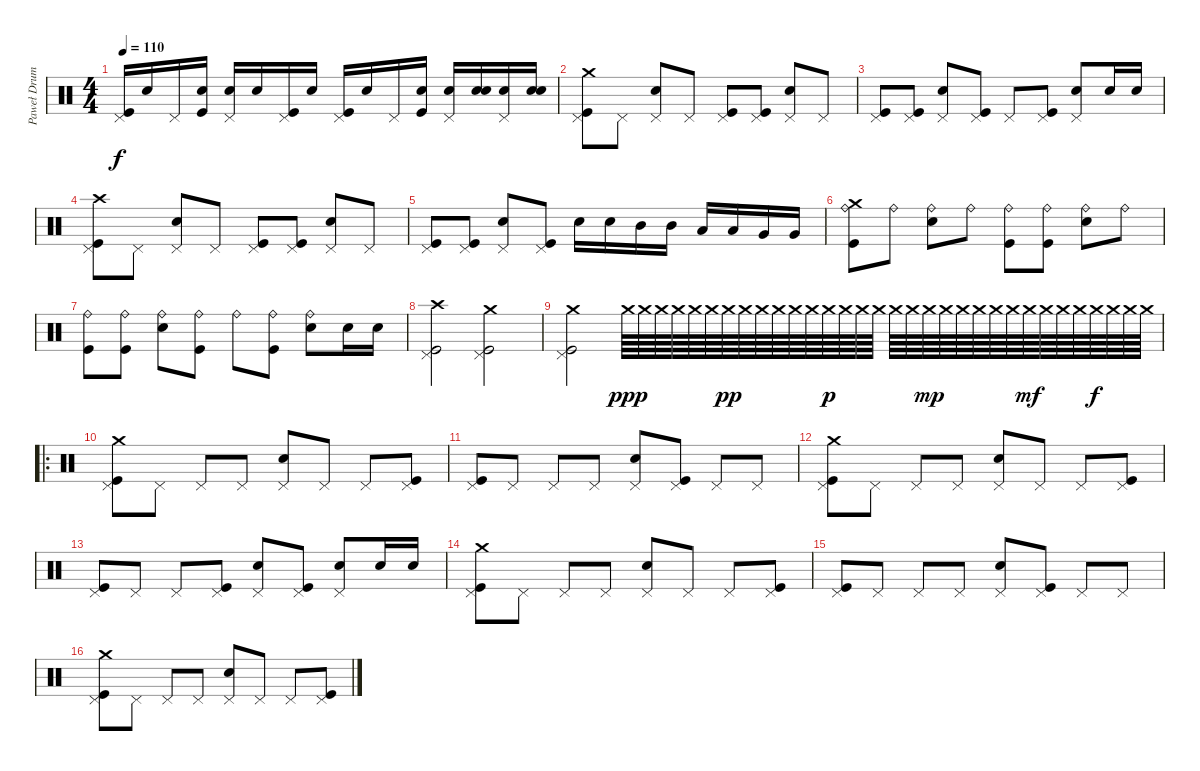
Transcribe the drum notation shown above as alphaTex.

\track ("Paweł Drums" "Paweł Drum") {instrument percussion}
\staff {score}
\articulation defaults
\ts (4 4)
\tempo 110
\clef neutral
\ks c
("Pedal Hi-Hat (hit)" "Kick (hit)").16{dy f} "Snare (hit)".16 "Pedal Hi-Hat (hit)".16 ("Snare (hit)" "Kick (hit)").16 ("Pedal Hi-Hat (hit)" "Snare (hit) 2").16 "Snare (hit)".16 ("Pedal Hi-Hat (hit)" "Kick (hit)").16 "Snare (hit)".16 ("Pedal Hi-Hat (hit)" "Kick (hit)").16 "Snare (hit)".16 "Pedal Hi-Hat (hit)".16 ("Snare (hit)" "Kick (hit)").16 ("Pedal Hi-Hat (hit)" "Snare (hit) 2").16 ("Snare (hit)" "Snare (hit) 2").16 ("Pedal Hi-Hat (hit)" "Snare (hit) 2").16 ("Snare (hit)" "Snare (hit) 2").16 |
("Pedal Hi-Hat (hit)" "Crash medium (hit)" "Kick (hit)").8 "Pedal Hi-Hat (hit)".8 ("Pedal Hi-Hat (hit)" "Snare (hit) 2").8 "Pedal Hi-Hat (hit)".8 ("Pedal Hi-Hat (hit)" "Kick (hit)").8 ("Pedal Hi-Hat (hit)" "Kick (hit)").8 ("Pedal Hi-Hat (hit)" "Snare (hit) 2").8 "Pedal Hi-Hat (hit)".8 |
("Pedal Hi-Hat (hit)" "Kick (hit)").8 ("Pedal Hi-Hat (hit)" "Kick (hit)").8 ("Pedal Hi-Hat (hit)" "Snare (hit) 2").8 ("Pedal Hi-Hat (hit)" "Kick (hit)").8 "Pedal Hi-Hat (hit)".8 ("Pedal Hi-Hat (hit)" "Kick (hit)").8 ("Pedal Hi-Hat (hit)" "Snare (hit) 2").8 "Snare (hit) 2".16 "Snare (hit) 2".16 |
("Pedal Hi-Hat (hit)" "Crash high (hit)" "Kick (hit)").8 "Pedal Hi-Hat (hit)".8 ("Pedal Hi-Hat (hit)" "Snare (hit) 2").8 "Pedal Hi-Hat (hit)".8 ("Pedal Hi-Hat (hit)" "Kick (hit)").8 ("Pedal Hi-Hat (hit)" "Kick (hit)").8 ("Pedal Hi-Hat (hit)" "Snare (hit) 2").8 "Pedal Hi-Hat (hit)".8 |
("Pedal Hi-Hat (hit)" "Kick (hit)").8 ("Pedal Hi-Hat (hit)" "Kick (hit)").8 ("Pedal Hi-Hat (hit)" "Snare (hit) 2").8 ("Pedal Hi-Hat (hit)" "Kick (hit)").8 "Snare (hit) 2".16 "Snare (hit) 2".16 "Mid Tom (hit)".16 "Mid Tom (hit)".16 "Low Tom (hit)".16 "Low Tom (hit)".16 "Very Low Tom (hit)".16 "Very Low Tom (hit)".16 |
("Ride (bell)" "Crash medium (hit)" "Kick (hit)").8 "Ride (bell)".8 ("Ride (bell)" "Snare (hit) 2").8 "Ride (bell)".8 ("Ride (bell)" "Kick (hit)").8 ("Ride (bell)" "Kick (hit)").8 ("Ride (bell)" "Snare (hit) 2").8 "Ride (bell)".8 |
("Ride (bell)" "Kick (hit)").8 ("Ride (bell)" "Kick (hit)").8 ("Ride (bell)" "Snare (hit) 2").8 ("Ride (bell)" "Kick (hit)").8 "Ride (bell)".8 ("Ride (bell)" "Kick (hit)").8 ("Ride (bell)" "Snare (hit) 2").8 "Snare (hit) 2".16 "Snare (hit) 2".16 |
("Pedal Hi-Hat (hit)" "Crash high (hit)" "Kick (hit)").2 ("Pedal Hi-Hat (hit)" "Crash medium (hit)" "Kick (hit)").2 |
("Pedal Hi-Hat (hit)" "Crash medium (hit)" "Kick (hit)").2 "Crash medium (hit)".64{dy ppp} "Crash medium (hit)".64 "Crash medium (hit)".64 "Crash medium (hit)".64 "Crash medium (hit)".64 "Crash medium (hit)".64 "Crash medium (hit)".64{dy pp} "Crash medium (hit)".64 "Crash medium (hit)".64 "Crash medium (hit)".64 "Crash medium (hit)".64 "Crash medium (hit)".64 "Crash medium (hit)".64{dy p} "Crash medium (hit)".64 "Crash medium (hit)".64 "Crash medium (hit)".64 "Crash medium (hit)".64 "Crash medium (hit)".64 "Crash medium (hit)".64{dy mp} "Crash medium (hit)".64 "Crash medium (hit)".64 "Crash medium (hit)".64 "Crash medium (hit)".64 "Crash medium (hit)".64 "Crash medium (hit)".64{dy mf} "Crash medium (hit)".64 "Crash medium (hit)".64 "Crash medium (hit)".64 "Crash medium (hit)".64{dy f} "Crash medium (hit)".64 "Crash medium (hit)".64 "Crash medium (hit)".64 |
\ro
("Pedal Hi-Hat (hit)" "Crash medium (hit)" "Kick (hit)").8 "Pedal Hi-Hat (hit)".8 "Pedal Hi-Hat (hit)".8 "Pedal Hi-Hat (hit)".8 ("Pedal Hi-Hat (hit)" "Snare (hit) 2").8 "Pedal Hi-Hat (hit)".8 "Pedal Hi-Hat (hit)".8 ("Pedal Hi-Hat (hit)" "Kick (hit)").8 |
("Pedal Hi-Hat (hit)" "Kick (hit)").8 "Pedal Hi-Hat (hit)".8 "Pedal Hi-Hat (hit)".8 "Pedal Hi-Hat (hit)".8 ("Pedal Hi-Hat (hit)" "Snare (hit) 2").8 ("Pedal Hi-Hat (hit)" "Kick (hit)").8 "Pedal Hi-Hat (hit)".8 "Pedal Hi-Hat (hit)".8 |
("Pedal Hi-Hat (hit)" "Crash medium (hit)" "Kick (hit)").8 "Pedal Hi-Hat (hit)".8 "Pedal Hi-Hat (hit)".8 "Pedal Hi-Hat (hit)".8 ("Pedal Hi-Hat (hit)" "Snare (hit) 2").8 "Pedal Hi-Hat (hit)".8 "Pedal Hi-Hat (hit)".8 ("Pedal Hi-Hat (hit)" "Kick (hit)").8 |
("Pedal Hi-Hat (hit)" "Kick (hit)").8 "Pedal Hi-Hat (hit)".8 "Pedal Hi-Hat (hit)".8 ("Pedal Hi-Hat (hit)" "Kick (hit)").8 ("Pedal Hi-Hat (hit)" "Snare (hit) 2").8 ("Pedal Hi-Hat (hit)" "Kick (hit)").8 ("Pedal Hi-Hat (hit)" "Snare (hit) 2").8 "Snare (hit) 2".16 "Snare (hit) 2".16 |
("Pedal Hi-Hat (hit)" "Crash medium (hit)" "Kick (hit)").8 "Pedal Hi-Hat (hit)".8 "Pedal Hi-Hat (hit)".8 "Pedal Hi-Hat (hit)".8 ("Pedal Hi-Hat (hit)" "Snare (hit) 2").8 "Pedal Hi-Hat (hit)".8 "Pedal Hi-Hat (hit)".8 ("Pedal Hi-Hat (hit)" "Kick (hit)").8 |
("Pedal Hi-Hat (hit)" "Kick (hit)").8 "Pedal Hi-Hat (hit)".8 "Pedal Hi-Hat (hit)".8 "Pedal Hi-Hat (hit)".8 ("Pedal Hi-Hat (hit)" "Snare (hit) 2").8 ("Pedal Hi-Hat (hit)" "Kick (hit)").8 "Pedal Hi-Hat (hit)".8 "Pedal Hi-Hat (hit)".8 |
("Pedal Hi-Hat (hit)" "Crash medium (hit)" "Kick (hit)").8 "Pedal Hi-Hat (hit)".8 "Pedal Hi-Hat (hit)".8 "Pedal Hi-Hat (hit)".8 ("Pedal Hi-Hat (hit)" "Snare (hit) 2").8 "Pedal Hi-Hat (hit)".8 "Pedal Hi-Hat (hit)".8 ("Pedal Hi-Hat (hit)" "Kick (hit)").8
